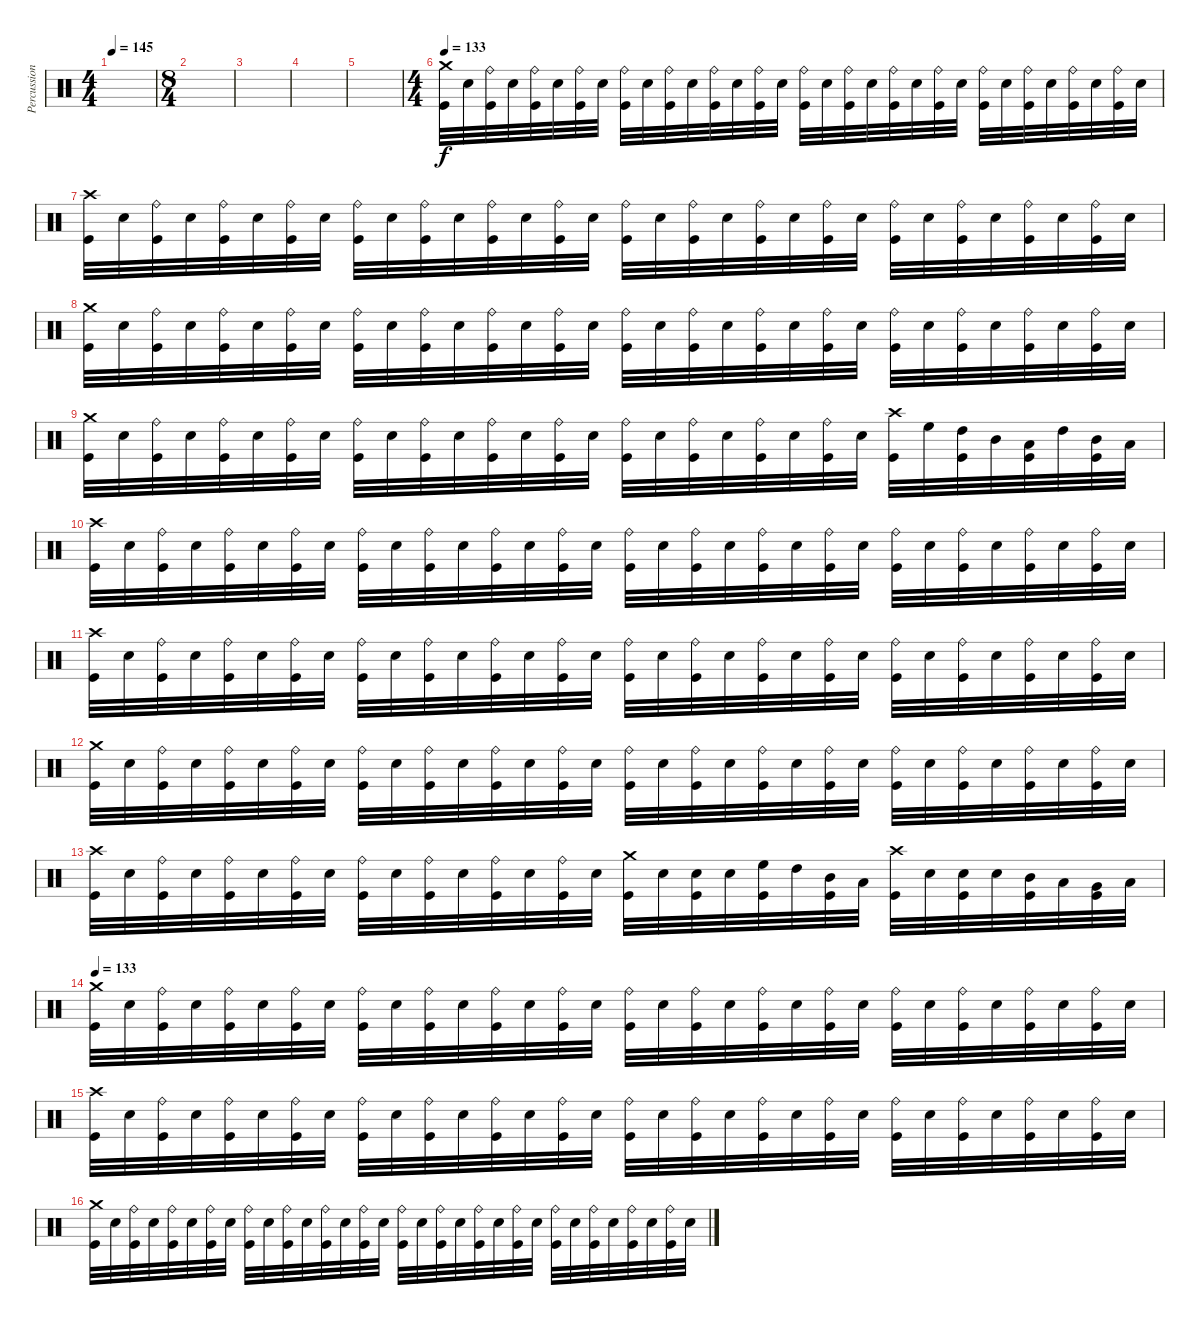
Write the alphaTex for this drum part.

\track ("Percussion" "Percussion") {instrument percussion}
\staff {score}
\articulation defaults
\ts (4 4)
\tempo 145
\clef neutral
\ks c
|
\ts (8 4)
|
|
|
|
\ts (4 4)
\tempo 133
("Crash medium (hit)" "Kick (hit)").32 "Snare (hit) 2".32 ("Ride (bell)" "Kick (hit)").32 "Snare (hit) 2".32 ("Ride (bell)" "Kick (hit)").32 "Snare (hit) 2".32 ("Ride (bell)" "Kick (hit)").32 "Snare (hit) 2".32 ("Ride (bell)" "Kick (hit)").32 "Snare (hit) 2".32 ("Ride (bell)" "Kick (hit)").32 "Snare (hit) 2".32 ("Ride (bell)" "Kick (hit)").32 "Snare (hit) 2".32 ("Ride (bell)" "Kick (hit)").32 "Snare (hit) 2".32 ("Ride (bell)" "Kick (hit)").32 "Snare (hit) 2".32 ("Ride (bell)" "Kick (hit)").32 "Snare (hit) 2".32 ("Ride (bell)" "Kick (hit)").32 "Snare (hit) 2".32 ("Ride (bell)" "Kick (hit)").32 "Snare (hit) 2".32 ("Ride (bell)" "Kick (hit)").32 "Snare (hit) 2".32 ("Ride (bell)" "Kick (hit)").32 "Snare (hit) 2".32 ("Ride (bell)" "Kick (hit)").32 "Snare (hit) 2".32 ("Ride (bell)" "Kick (hit)").32 "Snare (hit) 2".32 |
("Crash high (hit)" "Kick (hit)").32 "Snare (hit) 2".32 ("Ride (bell)" "Kick (hit)").32 "Snare (hit) 2".32 ("Ride (bell)" "Kick (hit)").32 "Snare (hit) 2".32 ("Ride (bell)" "Kick (hit)").32 "Snare (hit) 2".32 ("Ride (bell)" "Kick (hit)").32 "Snare (hit) 2".32 ("Ride (bell)" "Kick (hit)").32 "Snare (hit) 2".32 ("Ride (bell)" "Kick (hit)").32 "Snare (hit) 2".32 ("Ride (bell)" "Kick (hit)").32 "Snare (hit) 2".32 ("Ride (bell)" "Kick (hit)").32 "Snare (hit) 2".32 ("Ride (bell)" "Kick (hit)").32 "Snare (hit) 2".32 ("Ride (bell)" "Kick (hit)").32 "Snare (hit) 2".32 ("Ride (bell)" "Kick (hit)").32 "Snare (hit) 2".32 ("Ride (bell)" "Kick (hit)").32 "Snare (hit) 2".32 ("Ride (bell)" "Kick (hit)").32 "Snare (hit) 2".32 ("Ride (bell)" "Kick (hit)").32 "Snare (hit) 2".32 ("Ride (bell)" "Kick (hit)").32 "Snare (hit) 2".32 |
("Crash medium (hit)" "Kick (hit)").32 "Snare (hit) 2".32 ("Ride (bell)" "Kick (hit)").32 "Snare (hit) 2".32 ("Ride (bell)" "Kick (hit)").32 "Snare (hit) 2".32 ("Ride (bell)" "Kick (hit)").32 "Snare (hit) 2".32 ("Ride (bell)" "Kick (hit)").32 "Snare (hit) 2".32 ("Ride (bell)" "Kick (hit)").32 "Snare (hit) 2".32 ("Ride (bell)" "Kick (hit)").32 "Snare (hit) 2".32 ("Ride (bell)" "Kick (hit)").32 "Snare (hit) 2".32 ("Ride (bell)" "Kick (hit)").32 "Snare (hit) 2".32 ("Ride (bell)" "Kick (hit)").32 "Snare (hit) 2".32 ("Ride (bell)" "Kick (hit)").32 "Snare (hit) 2".32 ("Ride (bell)" "Kick (hit)").32 "Snare (hit) 2".32 ("Ride (bell)" "Kick (hit)").32 "Snare (hit) 2".32 ("Ride (bell)" "Kick (hit)").32 "Snare (hit) 2".32 ("Ride (bell)" "Kick (hit)").32 "Snare (hit) 2".32 ("Ride (bell)" "Kick (hit)").32 "Snare (hit) 2".32 |
("Crash medium (hit)" "Kick (hit)").32 "Snare (hit) 2".32 ("Ride (bell)" "Kick (hit)").32 "Snare (hit) 2".32 ("Ride (bell)" "Kick (hit)").32 "Snare (hit) 2".32 ("Ride (bell)" "Kick (hit)").32 "Snare (hit) 2".32 ("Ride (bell)" "Kick (hit)").32 "Snare (hit) 2".32 ("Ride (bell)" "Kick (hit)").32 "Snare (hit) 2".32 ("Ride (bell)" "Kick (hit)").32 "Snare (hit) 2".32 ("Ride (bell)" "Kick (hit)").32 "Snare (hit) 2".32 ("Ride (bell)" "Kick (hit)").32 "Snare (hit) 2".32 ("Ride (bell)" "Kick (hit)").32 "Snare (hit) 2".32 ("Ride (bell)" "Kick (hit)").32 "Snare (hit) 2".32 ("Ride (bell)" "Kick (hit)").32 "Snare (hit) 2".32 ("Crash high (hit)" "Kick (hit)").32 "High Floor Tom (hit)".32 ("High Tom (hit)" "Kick (hit)").32 "Mid Tom (hit)".32 ("Low Tom (hit)" "Kick (hit)").32 "High Tom (hit)".32 ("Mid Tom (hit)" "Kick (hit)").32 "Low Tom (hit)".32 |
("Crash high (hit)" "Kick (hit)").32 "Snare (hit) 2".32 ("Ride (bell)" "Kick (hit)").32 "Snare (hit) 2".32 ("Ride (bell)" "Kick (hit)").32 "Snare (hit) 2".32 ("Ride (bell)" "Kick (hit)").32 "Snare (hit) 2".32 ("Ride (bell)" "Kick (hit)").32 "Snare (hit) 2".32 ("Ride (bell)" "Kick (hit)").32 "Snare (hit) 2".32 ("Ride (bell)" "Kick (hit)").32 "Snare (hit) 2".32 ("Ride (bell)" "Kick (hit)").32 "Snare (hit) 2".32 ("Ride (bell)" "Kick (hit)").32 "Snare (hit) 2".32 ("Ride (bell)" "Kick (hit)").32 "Snare (hit) 2".32 ("Ride (bell)" "Kick (hit)").32 "Snare (hit) 2".32 ("Ride (bell)" "Kick (hit)").32 "Snare (hit) 2".32 ("Ride (bell)" "Kick (hit)").32 "Snare (hit) 2".32 ("Ride (bell)" "Kick (hit)").32 "Snare (hit) 2".32 ("Ride (bell)" "Kick (hit)").32 "Snare (hit) 2".32 ("Ride (bell)" "Kick (hit)").32 "Snare (hit) 2".32 |
("Crash high (hit)" "Kick (hit)").32 "Snare (hit) 2".32 ("Ride (bell)" "Kick (hit)").32 "Snare (hit) 2".32 ("Ride (bell)" "Kick (hit)").32 "Snare (hit) 2".32 ("Ride (bell)" "Kick (hit)").32 "Snare (hit) 2".32 ("Ride (bell)" "Kick (hit)").32 "Snare (hit) 2".32 ("Ride (bell)" "Kick (hit)").32 "Snare (hit) 2".32 ("Ride (bell)" "Kick (hit)").32 "Snare (hit) 2".32 ("Ride (bell)" "Kick (hit)").32 "Snare (hit) 2".32 ("Ride (bell)" "Kick (hit)").32 "Snare (hit) 2".32 ("Ride (bell)" "Kick (hit)").32 "Snare (hit) 2".32 ("Ride (bell)" "Kick (hit)").32 "Snare (hit) 2".32 ("Ride (bell)" "Kick (hit)").32 "Snare (hit) 2".32 ("Ride (bell)" "Kick (hit)").32 "Snare (hit) 2".32 ("Ride (bell)" "Kick (hit)").32 "Snare (hit) 2".32 ("Ride (bell)" "Kick (hit)").32 "Snare (hit) 2".32 ("Ride (bell)" "Kick (hit)").32 "Snare (hit) 2".32 |
("Crash medium (hit)" "Kick (hit)").32 "Snare (hit) 2".32 ("Ride (bell)" "Kick (hit)").32 "Snare (hit) 2".32 ("Ride (bell)" "Kick (hit)").32 "Snare (hit) 2".32 ("Ride (bell)" "Kick (hit)").32 "Snare (hit) 2".32 ("Ride (bell)" "Kick (hit)").32 "Snare (hit) 2".32 ("Ride (bell)" "Kick (hit)").32 "Snare (hit) 2".32 ("Ride (bell)" "Kick (hit)").32 "Snare (hit) 2".32 ("Ride (bell)" "Kick (hit)").32 "Snare (hit) 2".32 ("Ride (bell)" "Kick (hit)").32 "Snare (hit) 2".32 ("Ride (bell)" "Kick (hit)").32 "Snare (hit) 2".32 ("Ride (bell)" "Kick (hit)").32 "Snare (hit) 2".32 ("Ride (bell)" "Kick (hit)").32 "Snare (hit) 2".32 ("Ride (bell)" "Kick (hit)").32 "Snare (hit) 2".32 ("Ride (bell)" "Kick (hit)").32 "Snare (hit) 2".32 ("Ride (bell)" "Kick (hit)").32 "Snare (hit) 2".32 ("Ride (bell)" "Kick (hit)").32 "Snare (hit) 2".32 |
("Crash high (hit)" "Kick (hit)").32 "Snare (hit) 2".32 ("Ride (bell)" "Kick (hit)").32 "Snare (hit) 2".32 ("Ride (bell)" "Kick (hit)").32 "Snare (hit) 2".32 ("Ride (bell)" "Kick (hit)").32 "Snare (hit) 2".32 ("Ride (bell)" "Kick (hit)").32 "Snare (hit) 2".32 ("Ride (bell)" "Kick (hit)").32 "Snare (hit) 2".32 ("Ride (bell)" "Kick (hit)").32 "Snare (hit) 2".32 ("Ride (bell)" "Kick (hit)").32 "Snare (hit) 2".32 ("Crash medium (hit)" "Kick (hit)").32 "Snare (hit) 2".32 ("Snare (hit) 2" "Kick (hit)").32 "Snare (hit) 2".32 ("High Floor Tom (hit)" "Kick (hit)").32 "High Tom (hit)".32 ("Mid Tom (hit)" "Kick (hit)").32 "Low Tom (hit)".32 ("Crash high (hit)" "Kick (hit)").32 "Snare (hit) 2".32 ("Snare (hit) 2" "Kick (hit)").32 "Snare (hit) 2".32 ("Mid Tom (hit)" "Kick (hit)").32 "Low Tom (hit)".32 ("Very Low Tom (hit)" "Kick (hit)").32 "Low Floor Tom (hit)".32 |
\tempo 133
("Crash medium (hit)" "Kick (hit)").32 "Snare (hit) 2".32 ("Ride (bell)" "Kick (hit)").32 "Snare (hit) 2".32 ("Ride (bell)" "Kick (hit)").32 "Snare (hit) 2".32 ("Ride (bell)" "Kick (hit)").32 "Snare (hit) 2".32 ("Ride (bell)" "Kick (hit)").32 "Snare (hit) 2".32 ("Ride (bell)" "Kick (hit)").32 "Snare (hit) 2".32 ("Ride (bell)" "Kick (hit)").32 "Snare (hit) 2".32 ("Ride (bell)" "Kick (hit)").32 "Snare (hit) 2".32 ("Ride (bell)" "Kick (hit)").32 "Snare (hit) 2".32 ("Ride (bell)" "Kick (hit)").32 "Snare (hit) 2".32 ("Ride (bell)" "Kick (hit)").32 "Snare (hit) 2".32 ("Ride (bell)" "Kick (hit)").32 "Snare (hit) 2".32 ("Ride (bell)" "Kick (hit)").32 "Snare (hit) 2".32 ("Ride (bell)" "Kick (hit)").32 "Snare (hit) 2".32 ("Ride (bell)" "Kick (hit)").32 "Snare (hit) 2".32 ("Ride (bell)" "Kick (hit)").32 "Snare (hit) 2".32 |
("Crash high (hit)" "Kick (hit)").32 "Snare (hit) 2".32 ("Ride (bell)" "Kick (hit)").32 "Snare (hit) 2".32 ("Ride (bell)" "Kick (hit)").32 "Snare (hit) 2".32 ("Ride (bell)" "Kick (hit)").32 "Snare (hit) 2".32 ("Ride (bell)" "Kick (hit)").32 "Snare (hit) 2".32 ("Ride (bell)" "Kick (hit)").32 "Snare (hit) 2".32 ("Ride (bell)" "Kick (hit)").32 "Snare (hit) 2".32 ("Ride (bell)" "Kick (hit)").32 "Snare (hit) 2".32 ("Ride (bell)" "Kick (hit)").32 "Snare (hit) 2".32 ("Ride (bell)" "Kick (hit)").32 "Snare (hit) 2".32 ("Ride (bell)" "Kick (hit)").32 "Snare (hit) 2".32 ("Ride (bell)" "Kick (hit)").32 "Snare (hit) 2".32 ("Ride (bell)" "Kick (hit)").32 "Snare (hit) 2".32 ("Ride (bell)" "Kick (hit)").32 "Snare (hit) 2".32 ("Ride (bell)" "Kick (hit)").32 "Snare (hit) 2".32 ("Ride (bell)" "Kick (hit)").32 "Snare (hit) 2".32 |
("Crash medium (hit)" "Kick (hit)").32 "Snare (hit) 2".32 ("Ride (bell)" "Kick (hit)").32 "Snare (hit) 2".32 ("Ride (bell)" "Kick (hit)").32 "Snare (hit) 2".32 ("Ride (bell)" "Kick (hit)").32 "Snare (hit) 2".32 ("Ride (bell)" "Kick (hit)").32 "Snare (hit) 2".32 ("Ride (bell)" "Kick (hit)").32 "Snare (hit) 2".32 ("Ride (bell)" "Kick (hit)").32 "Snare (hit) 2".32 ("Ride (bell)" "Kick (hit)").32 "Snare (hit) 2".32 ("Ride (bell)" "Kick (hit)").32 "Snare (hit) 2".32 ("Ride (bell)" "Kick (hit)").32 "Snare (hit) 2".32 ("Ride (bell)" "Kick (hit)").32 "Snare (hit) 2".32 ("Ride (bell)" "Kick (hit)").32 "Snare (hit) 2".32 ("Ride (bell)" "Kick (hit)").32 "Snare (hit) 2".32 ("Ride (bell)" "Kick (hit)").32 "Snare (hit) 2".32 ("Ride (bell)" "Kick (hit)").32 "Snare (hit) 2".32 ("Ride (bell)" "Kick (hit)").32 "Snare (hit) 2".32
